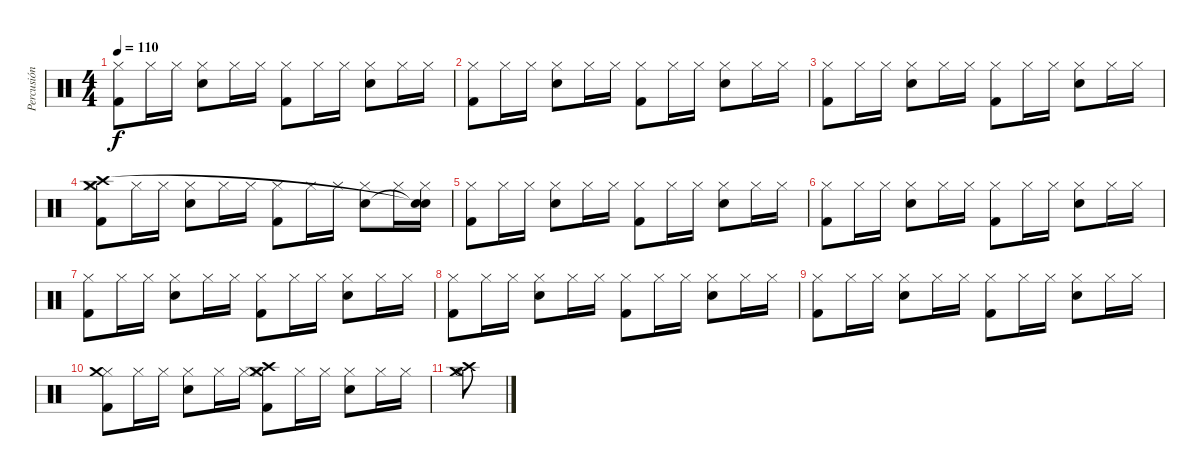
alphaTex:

\track ("Percusión" "Percusión") {instrument percussion}
\staff {score}
\articulation defaults
\ts (4 4)
\tempo 110
\clef neutral
\ks c
("Hi-Hat (closed)" "Kick (hit) 2").8{dy f} "Hi-Hat (closed)".16 "Hi-Hat (closed)".16 ("Hi-Hat (closed)" "Snare (hit) 2").8 "Hi-Hat (closed)".16 "Hi-Hat (closed)".16 ("Hi-Hat (closed)" "Kick (hit) 2").8 "Hi-Hat (closed)".16 "Hi-Hat (closed)".16 ("Hi-Hat (closed)" "Snare (hit) 2").8 "Hi-Hat (closed)".16 "Hi-Hat (closed)".16 |
("Hi-Hat (closed)" "Kick (hit) 2").8 "Hi-Hat (closed)".16 "Hi-Hat (closed)".16 ("Hi-Hat (closed)" "Snare (hit) 2").8 "Hi-Hat (closed)".16 "Hi-Hat (closed)".16 ("Hi-Hat (closed)" "Kick (hit) 2").8 "Hi-Hat (closed)".16 "Hi-Hat (closed)".16 ("Hi-Hat (closed)" "Snare (hit) 2").8 "Hi-Hat (closed)".16 "Hi-Hat (closed)".16 |
("Hi-Hat (closed)" "Kick (hit) 2").8 "Hi-Hat (closed)".16 "Hi-Hat (closed)".16 ("Hi-Hat (closed)" "Snare (hit) 2").8 "Hi-Hat (closed)".16 "Hi-Hat (closed)".16 ("Hi-Hat (closed)" "Kick (hit) 2").8 "Hi-Hat (closed)".16 "Hi-Hat (closed)".16 ("Hi-Hat (closed)" "Snare (hit) 2").8 "Hi-Hat (closed)".16 "Hi-Hat (closed)".16 |
("Hi-Hat (closed)" "Kick (hit) 2" "Crash high (hit)" "Crash medium (hit)").8 "Hi-Hat (closed)".16 "Hi-Hat (closed)".16 ("Hi-Hat (closed)" "Snare (hit) 2").8 "Hi-Hat (closed)".16 "Hi-Hat (closed)".16 ("Hi-Hat (closed)" "Kick (hit) 2").8 "Hi-Hat (closed)".16 "Hi-Hat (closed)".16 ("Hi-Hat (closed)" "Snare (hit) 2").8 "Hi-Hat (closed)".16 ("Hi-Hat (closed)" "Snare (hit)"{t} "Snare (hit)"{t}).16 |
("Hi-Hat (closed)" "Kick (hit) 2").8 "Hi-Hat (closed)".16 "Hi-Hat (closed)".16 ("Hi-Hat (closed)" "Snare (hit) 2").8 "Hi-Hat (closed)".16 "Hi-Hat (closed)".16 ("Hi-Hat (closed)" "Kick (hit) 2").8 "Hi-Hat (closed)".16 "Hi-Hat (closed)".16 ("Hi-Hat (closed)" "Snare (hit) 2").8 "Hi-Hat (closed)".16 "Hi-Hat (closed)".16 |
("Hi-Hat (closed)" "Kick (hit) 2").8 "Hi-Hat (closed)".16 "Hi-Hat (closed)".16 ("Hi-Hat (closed)" "Snare (hit) 2").8 "Hi-Hat (closed)".16 "Hi-Hat (closed)".16 ("Hi-Hat (closed)" "Kick (hit) 2").8 "Hi-Hat (closed)".16 "Hi-Hat (closed)".16 ("Hi-Hat (closed)" "Snare (hit) 2").8 "Hi-Hat (closed)".16 "Hi-Hat (closed)".16 |
("Hi-Hat (closed)" "Kick (hit) 2").8 "Hi-Hat (closed)".16 "Hi-Hat (closed)".16 ("Hi-Hat (closed)" "Snare (hit) 2").8 "Hi-Hat (closed)".16 "Hi-Hat (closed)".16 ("Hi-Hat (closed)" "Kick (hit) 2").8 "Hi-Hat (closed)".16 "Hi-Hat (closed)".16 ("Hi-Hat (closed)" "Snare (hit) 2").8 "Hi-Hat (closed)".16 "Hi-Hat (closed)".16 |
("Hi-Hat (closed)" "Kick (hit) 2").8 "Hi-Hat (closed)".16 "Hi-Hat (closed)".16 ("Hi-Hat (closed)" "Snare (hit) 2").8 "Hi-Hat (closed)".16 "Hi-Hat (closed)".16 ("Hi-Hat (closed)" "Kick (hit) 2").8 "Hi-Hat (closed)".16 "Hi-Hat (closed)".16 ("Hi-Hat (closed)" "Snare (hit) 2").8 "Hi-Hat (closed)".16 "Hi-Hat (closed)".16 |
("Hi-Hat (closed)" "Kick (hit) 2").8 "Hi-Hat (closed)".16 "Hi-Hat (closed)".16 ("Hi-Hat (closed)" "Snare (hit) 2").8 "Hi-Hat (closed)".16 "Hi-Hat (closed)".16 ("Hi-Hat (closed)" "Kick (hit) 2").8 "Hi-Hat (closed)".16 "Hi-Hat (closed)".16 ("Hi-Hat (closed)" "Snare (hit) 2").8 "Hi-Hat (closed)".16 "Hi-Hat (closed)".16 |
("Hi-Hat (closed)" "Kick (hit) 2" "Crash medium (hit)").8 "Hi-Hat (closed)".16 "Hi-Hat (closed)".16 ("Hi-Hat (closed)" "Snare (hit) 2").8 "Hi-Hat (closed)".16 "Hi-Hat (closed)".16 ("Hi-Hat (closed)" "Kick (hit) 2" "Crash high (hit)" "Crash medium (hit)").8 "Hi-Hat (closed)".16 "Hi-Hat (closed)".16 ("Hi-Hat (closed)" "Snare (hit) 2").8 "Hi-Hat (closed)".16 "Hi-Hat (closed)".16 |
("Hi-Hat (open)" "Crash high (hit)" "Crash medium (hit)").8
